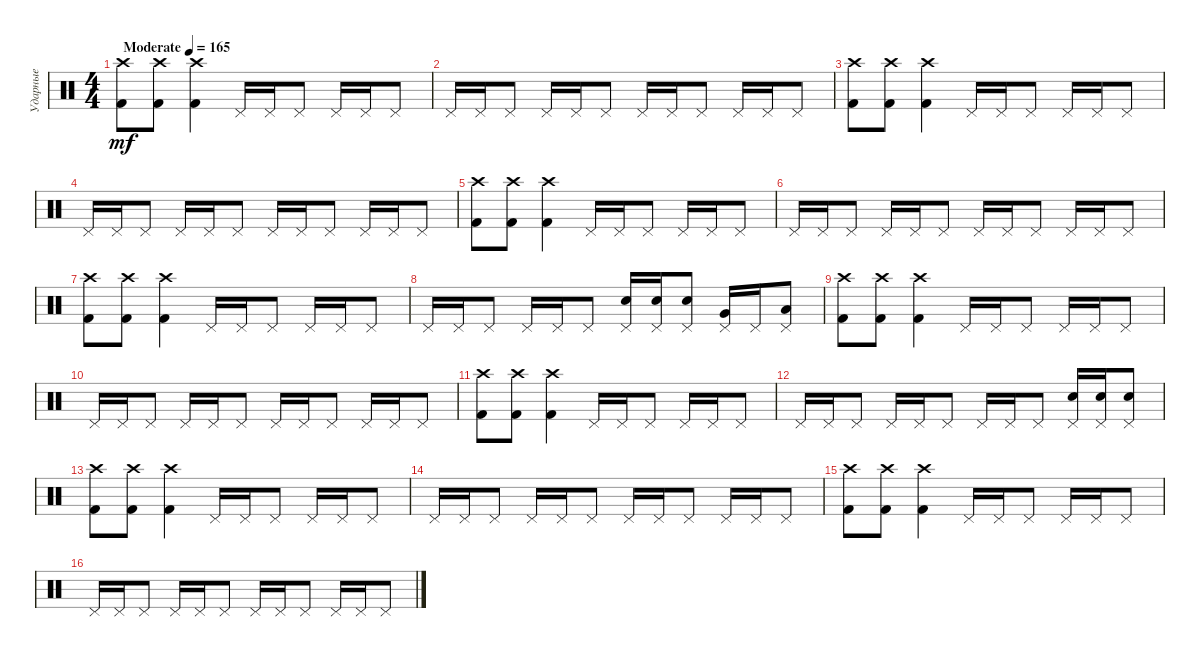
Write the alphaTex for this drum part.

\track ("Ударные" "Ударные") {instrument percussion}
\staff {score}
\articulation defaults
\ts (4 4)
\tempo (165 "Moderate")
\clef neutral
\ks c
("Kick (hit) 2" "Crash high (hit)").8{dy mf} ("Kick (hit) 2" "Crash high (hit)").8 ("Kick (hit) 2" "Crash high (hit)").4 "Pedal Hi-Hat (hit)".16 "Pedal Hi-Hat (hit)".16 "Pedal Hi-Hat (hit)".8 "Pedal Hi-Hat (hit)".16 "Pedal Hi-Hat (hit)".16 "Pedal Hi-Hat (hit)".8 |
"Pedal Hi-Hat (hit)".16 "Pedal Hi-Hat (hit)".16 "Pedal Hi-Hat (hit)".8 "Pedal Hi-Hat (hit)".16 "Pedal Hi-Hat (hit)".16 "Pedal Hi-Hat (hit)".8 "Pedal Hi-Hat (hit)".16 "Pedal Hi-Hat (hit)".16 "Pedal Hi-Hat (hit)".8 "Pedal Hi-Hat (hit)".16 "Pedal Hi-Hat (hit)".16 "Pedal Hi-Hat (hit)".8 |
("Kick (hit) 2" "Crash high (hit)").8 ("Kick (hit) 2" "Crash high (hit)").8 ("Kick (hit) 2" "Crash high (hit)").4 "Pedal Hi-Hat (hit)".16 "Pedal Hi-Hat (hit)".16 "Pedal Hi-Hat (hit)".8 "Pedal Hi-Hat (hit)".16 "Pedal Hi-Hat (hit)".16 "Pedal Hi-Hat (hit)".8 |
"Pedal Hi-Hat (hit)".16 "Pedal Hi-Hat (hit)".16 "Pedal Hi-Hat (hit)".8 "Pedal Hi-Hat (hit)".16 "Pedal Hi-Hat (hit)".16 "Pedal Hi-Hat (hit)".8 "Pedal Hi-Hat (hit)".16 "Pedal Hi-Hat (hit)".16 "Pedal Hi-Hat (hit)".8 "Pedal Hi-Hat (hit)".16 "Pedal Hi-Hat (hit)".16 "Pedal Hi-Hat (hit)".8 |
("Kick (hit) 2" "Crash high (hit)").8 ("Kick (hit) 2" "Crash high (hit)").8 ("Kick (hit) 2" "Crash high (hit)").4 "Pedal Hi-Hat (hit)".16 "Pedal Hi-Hat (hit)".16 "Pedal Hi-Hat (hit)".8 "Pedal Hi-Hat (hit)".16 "Pedal Hi-Hat (hit)".16 "Pedal Hi-Hat (hit)".8 |
"Pedal Hi-Hat (hit)".16 "Pedal Hi-Hat (hit)".16 "Pedal Hi-Hat (hit)".8 "Pedal Hi-Hat (hit)".16 "Pedal Hi-Hat (hit)".16 "Pedal Hi-Hat (hit)".8 "Pedal Hi-Hat (hit)".16 "Pedal Hi-Hat (hit)".16 "Pedal Hi-Hat (hit)".8 "Pedal Hi-Hat (hit)".16 "Pedal Hi-Hat (hit)".16 "Pedal Hi-Hat (hit)".8 |
("Kick (hit) 2" "Crash high (hit)").8 ("Kick (hit) 2" "Crash high (hit)").8 ("Kick (hit) 2" "Crash high (hit)").4 "Pedal Hi-Hat (hit)".16 "Pedal Hi-Hat (hit)".16 "Pedal Hi-Hat (hit)".8 "Pedal Hi-Hat (hit)".16 "Pedal Hi-Hat (hit)".16 "Pedal Hi-Hat (hit)".8 |
"Pedal Hi-Hat (hit)".16 "Pedal Hi-Hat (hit)".16 "Pedal Hi-Hat (hit)".8 "Pedal Hi-Hat (hit)".16 "Pedal Hi-Hat (hit)".16 "Pedal Hi-Hat (hit)".8 ("Pedal Hi-Hat (hit)" "Electric Snare (hit)").16 ("Pedal Hi-Hat (hit)" "Electric Snare (hit)").16 ("Pedal Hi-Hat (hit)" "Electric Snare (hit)").8 ("Pedal Hi-Hat (hit)" "Very Low Tom (hit)").16 "Pedal Hi-Hat (hit)".16 ("Pedal Hi-Hat (hit)" "Low Floor Tom (hit)").8 |
("Kick (hit) 2" "Crash high (hit)").8 ("Kick (hit) 2" "Crash high (hit)").8 ("Kick (hit) 2" "Crash high (hit)").4 "Pedal Hi-Hat (hit)".16 "Pedal Hi-Hat (hit)".16 "Pedal Hi-Hat (hit)".8 "Pedal Hi-Hat (hit)".16 "Pedal Hi-Hat (hit)".16 "Pedal Hi-Hat (hit)".8 |
"Pedal Hi-Hat (hit)".16 "Pedal Hi-Hat (hit)".16 "Pedal Hi-Hat (hit)".8 "Pedal Hi-Hat (hit)".16 "Pedal Hi-Hat (hit)".16 "Pedal Hi-Hat (hit)".8 "Pedal Hi-Hat (hit)".16 "Pedal Hi-Hat (hit)".16 "Pedal Hi-Hat (hit)".8 "Pedal Hi-Hat (hit)".16 "Pedal Hi-Hat (hit)".16 "Pedal Hi-Hat (hit)".8 |
("Kick (hit) 2" "Crash high (hit)").8 ("Kick (hit) 2" "Crash high (hit)").8 ("Kick (hit) 2" "Crash high (hit)").4 "Pedal Hi-Hat (hit)".16 "Pedal Hi-Hat (hit)".16 "Pedal Hi-Hat (hit)".8 "Pedal Hi-Hat (hit)".16 "Pedal Hi-Hat (hit)".16 "Pedal Hi-Hat (hit)".8 |
"Pedal Hi-Hat (hit)".16 "Pedal Hi-Hat (hit)".16 "Pedal Hi-Hat (hit)".8 "Pedal Hi-Hat (hit)".16 "Pedal Hi-Hat (hit)".16 "Pedal Hi-Hat (hit)".8 "Pedal Hi-Hat (hit)".16 "Pedal Hi-Hat (hit)".16 "Pedal Hi-Hat (hit)".8 ("Pedal Hi-Hat (hit)" "Electric Snare (hit)").16 ("Pedal Hi-Hat (hit)" "Electric Snare (hit)").16 ("Pedal Hi-Hat (hit)" "Electric Snare (hit)").8 |
("Kick (hit) 2" "Crash high (hit)").8 ("Kick (hit) 2" "Crash high (hit)").8 ("Kick (hit) 2" "Crash high (hit)").4 "Pedal Hi-Hat (hit)".16 "Pedal Hi-Hat (hit)".16 "Pedal Hi-Hat (hit)".8 "Pedal Hi-Hat (hit)".16 "Pedal Hi-Hat (hit)".16 "Pedal Hi-Hat (hit)".8 |
"Pedal Hi-Hat (hit)".16 "Pedal Hi-Hat (hit)".16 "Pedal Hi-Hat (hit)".8 "Pedal Hi-Hat (hit)".16 "Pedal Hi-Hat (hit)".16 "Pedal Hi-Hat (hit)".8 "Pedal Hi-Hat (hit)".16 "Pedal Hi-Hat (hit)".16 "Pedal Hi-Hat (hit)".8 "Pedal Hi-Hat (hit)".16 "Pedal Hi-Hat (hit)".16 "Pedal Hi-Hat (hit)".8 |
("Kick (hit) 2" "Crash high (hit)").8 ("Kick (hit) 2" "Crash high (hit)").8 ("Kick (hit) 2" "Crash high (hit)").4 "Pedal Hi-Hat (hit)".16 "Pedal Hi-Hat (hit)".16 "Pedal Hi-Hat (hit)".8 "Pedal Hi-Hat (hit)".16 "Pedal Hi-Hat (hit)".16 "Pedal Hi-Hat (hit)".8 |
"Pedal Hi-Hat (hit)".16 "Pedal Hi-Hat (hit)".16 "Pedal Hi-Hat (hit)".8 "Pedal Hi-Hat (hit)".16 "Pedal Hi-Hat (hit)".16 "Pedal Hi-Hat (hit)".8 "Pedal Hi-Hat (hit)".16 "Pedal Hi-Hat (hit)".16 "Pedal Hi-Hat (hit)".8 "Pedal Hi-Hat (hit)".16 "Pedal Hi-Hat (hit)".16 "Pedal Hi-Hat (hit)".8
